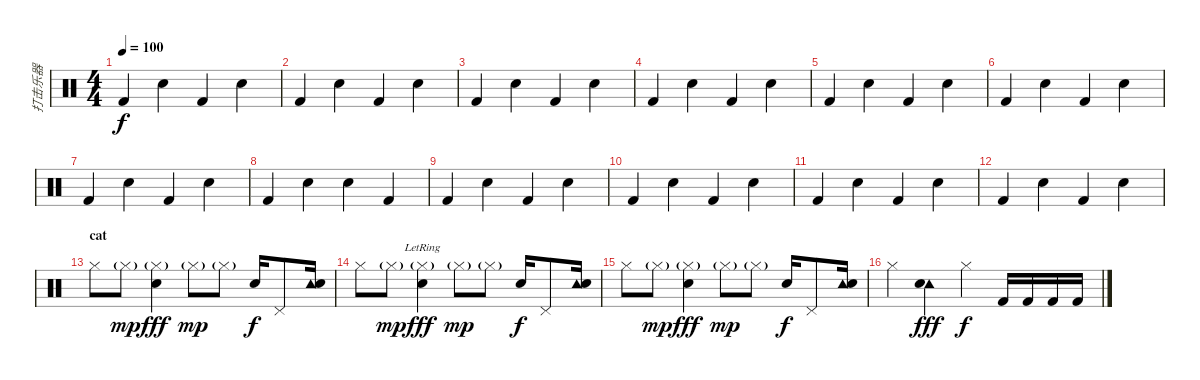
\track ("打击乐器" "打击乐器") {instrument percussion}
\staff {score}
\articulation defaults
\ts (4 4)
\tempo 100
\clef neutral
\ks c "Kick (hit) 2".4{dy f} "Snare (hit) 2".4 "Kick (hit) 2".4 "Snare (hit) 2".4
|
"Kick (hit) 2".4 "Snare (hit) 2".4 "Kick (hit) 2".4 "Snare (hit) 2".4 |
"Kick (hit) 2".4 "Snare (hit) 2".4 "Kick (hit) 2".4 "Snare (hit) 2".4 |
"Kick (hit) 2".4 "Snare (hit) 2".4 "Kick (hit) 2".4 "Snare (hit) 2".4 |
"Kick (hit) 2".4 "Snare (hit) 2".4 "Kick (hit) 2".4 "Snare (hit) 2".4 |
"Kick (hit) 2".4 "Snare (hit) 2".4 "Kick (hit) 2".4 "Snare (hit) 2".4 |
"Kick (hit) 2".4 "Snare (hit) 2".4 "Kick (hit) 2".4 "Snare (hit) 2".4 |
"Kick (hit) 2".4 "Snare (hit) 2".4 "Snare (hit) 2".4 "Kick (hit) 2".4 |
"Kick (hit) 2".4 "Snare (hit) 2".4 "Kick (hit) 2".4 "Snare (hit) 2".4 |
"Kick (hit) 2".4 "Snare (hit) 2".4 "Kick (hit) 2".4 "Snare (hit) 2".4 |
"Kick (hit) 2".4 "Snare (hit) 2".4 "Kick (hit) 2".4 "Snare (hit) 2".4 |
"Kick (hit) 2".4 "Snare (hit) 2".4 "Kick (hit) 2".4 "Snare (hit) 2".4 |
\section ("" "cat")
"Hi-Hat (closed)".8 "Hi-Hat (closed)"{g}.8{dy mp} ("Hi-Hat (closed)"{g} "Snare (hit) 2").4{dy fff} "Hi-Hat (closed)"{g}.8{dy mp} "Hi-Hat (closed)"{g}.8 "Electric Snare (hit)".16{dy f} "Pedal Hi-Hat (hit)".8 ("Tambourine (hit)" "Electric Snare (hit)").16 |
"Hi-Hat (closed)".8 "Hi-Hat (closed)"{g}.8{dy mp} ("Hi-Hat (closed)"{g} "Snare (hit) 2"{lr}).4{dy fff} "Hi-Hat (closed)"{g}.8{dy mp} "Hi-Hat (closed)"{g}.8 "Electric Snare (hit)".16{dy f} "Pedal Hi-Hat (hit)".8 ("Tambourine (hit)" "Electric Snare (hit)").16 |
"Hi-Hat (closed)".8 "Hi-Hat (closed)"{g}.8{dy mp} ("Hi-Hat (closed)"{g} "Snare (hit) 2").4{dy fff} "Hi-Hat (closed)"{g}.8{dy mp} "Hi-Hat (closed)"{g}.8 "Electric Snare (hit)".16{dy f} "Pedal Hi-Hat (hit)".8 ("Tambourine (hit)" "Electric Snare (hit)").16 |
"Hi-Hat (closed)".4 ("Tambourine (hit)" "Snare (hit) 2").4{dy fff} "Hi-Hat (closed)".4{dy f} "Kick (hit) 2".16 "Kick (hit) 2".16 "Kick (hit) 2".16 "Kick (hit) 2".16
